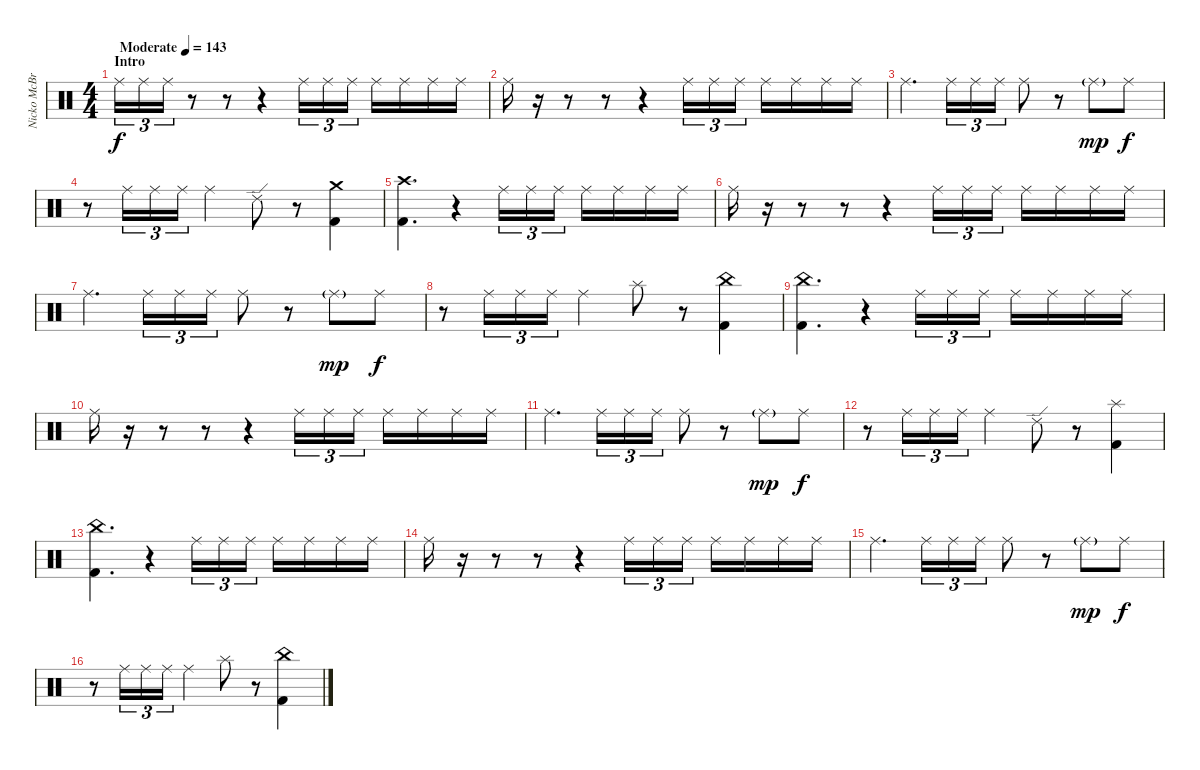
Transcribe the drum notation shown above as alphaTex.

\track ("Nicko McBrian" "Nicko McBr") {instrument percussion}
\staff {score}
\articulation defaults
\ts (4 4)
\section ("" "Intro")
\tempo (143 "Moderate")
\clef neutral
\ks c "Ride (middle)".16{tu (3 2) dy f} "Ride (middle)".16{tu (3 2)} "Ride (middle)".16{tu (3 2)}
r.8 r.8 r.4 "Ride (middle)".16{tu (3 2)} "Ride (middle)".16{tu (3 2)} "Ride (middle)".16{tu (3 2)} "Ride (middle)".16 "Ride (middle)".16 "Ride (middle)".16 "Ride (middle)".16 |
"Ride (middle)".16 r.16 r.8 r.8 r.4 "Ride (middle)".16{tu (3 2)} "Ride (middle)".16{tu (3 2)} "Ride (middle)".16{tu (3 2)} "Ride (middle)".16 "Ride (middle)".16 "Ride (middle)".16 "Ride (middle)".16 |
"Ride (middle)".4{d} "Ride (middle)".16{tu (3 2)} "Ride (middle)".16{tu (3 2)} "Ride (middle)".16{tu (3 2)} "Ride (middle)".8 r.8 "Ride (middle)"{g}.8{dy mp} "Ride (middle)".8{dy f} |
r.8 "Ride (middle)".16{tu (3 2)} "Ride (middle)".16{tu (3 2)} "Ride (middle)".16{tu (3 2)} "Ride (middle)".4 "Ride (edge) 2".8 r.8 ("Crash medium (hit)" "Kick (hit) 2").4 |
("Crash high (hit)" "Kick (hit) 2").4{d} r.4 "Ride (middle)".16{tu (3 2)} "Ride (middle)".16{tu (3 2)} "Ride (middle)".16{tu (3 2)} "Ride (middle)".16 "Ride (middle)".16 "Ride (middle)".16 "Ride (middle)".16 |
"Ride (middle)".16 r.16 r.8 r.8 r.4 "Ride (middle)".16{tu (3 2)} "Ride (middle)".16{tu (3 2)} "Ride (middle)".16{tu (3 2)} "Ride (middle)".16 "Ride (middle)".16 "Ride (middle)".16 "Ride (middle)".16 |
"Ride (middle)".4{d} "Ride (middle)".16{tu (3 2)} "Ride (middle)".16{tu (3 2)} "Ride (middle)".16{tu (3 2)} "Ride (middle)".8 r.8 "Ride (middle)"{g}.8{dy mp} "Ride (middle)".8{dy f} |
r.8 "Ride (middle)".16{tu (3 2)} "Ride (middle)".16{tu (3 2)} "Ride (middle)".16{tu (3 2)} "Ride (middle)".4 "Splash (hit)".8 r.8 ("China (hit)" "Kick (hit) 2").4 |
("China (hit)" "Kick (hit) 2").4{d} r.4 "Ride (middle)".16{tu (3 2)} "Ride (middle)".16{tu (3 2)} "Ride (middle)".16{tu (3 2)} "Ride (middle)".16 "Ride (middle)".16 "Ride (middle)".16 "Ride (middle)".16 |
"Ride (middle)".16 r.16 r.8 r.8 r.4 "Ride (middle)".16{tu (3 2)} "Ride (middle)".16{tu (3 2)} "Ride (middle)".16{tu (3 2)} "Ride (middle)".16 "Ride (middle)".16 "Ride (middle)".16 "Ride (middle)".16 |
"Ride (middle)".4{d} "Ride (middle)".16{tu (3 2)} "Ride (middle)".16{tu (3 2)} "Ride (middle)".16{tu (3 2)} "Ride (middle)".8 r.8 "Ride (middle)"{g}.8{dy mp} "Ride (middle)".8{dy f} |
r.8 "Ride (middle)".16{tu (3 2)} "Ride (middle)".16{tu (3 2)} "Ride (middle)".16{tu (3 2)} "Ride (middle)".4 "Ride (edge) 2".8 r.8 ("Splash (hit)" "Kick (hit) 2").4 |
("China (hit)" "Kick (hit) 2").4{d} r.4 "Ride (middle)".16{tu (3 2)} "Ride (middle)".16{tu (3 2)} "Ride (middle)".16{tu (3 2)} "Ride (middle)".16 "Ride (middle)".16 "Ride (middle)".16 "Ride (middle)".16 |
"Ride (middle)".16 r.16 r.8 r.8 r.4 "Ride (middle)".16{tu (3 2)} "Ride (middle)".16{tu (3 2)} "Ride (middle)".16{tu (3 2)} "Ride (middle)".16 "Ride (middle)".16 "Ride (middle)".16 "Ride (middle)".16 |
"Ride (middle)".4{d} "Ride (middle)".16{tu (3 2)} "Ride (middle)".16{tu (3 2)} "Ride (middle)".16{tu (3 2)} "Ride (middle)".8 r.8 "Ride (middle)"{g}.8{dy mp} "Ride (middle)".8{dy f} |
r.8 "Ride (middle)".16{tu (3 2)} "Ride (middle)".16{tu (3 2)} "Ride (middle)".16{tu (3 2)} "Ride (middle)".4 "Splash (hit)".8 r.8 ("China (hit)" "Kick (hit) 2").4
